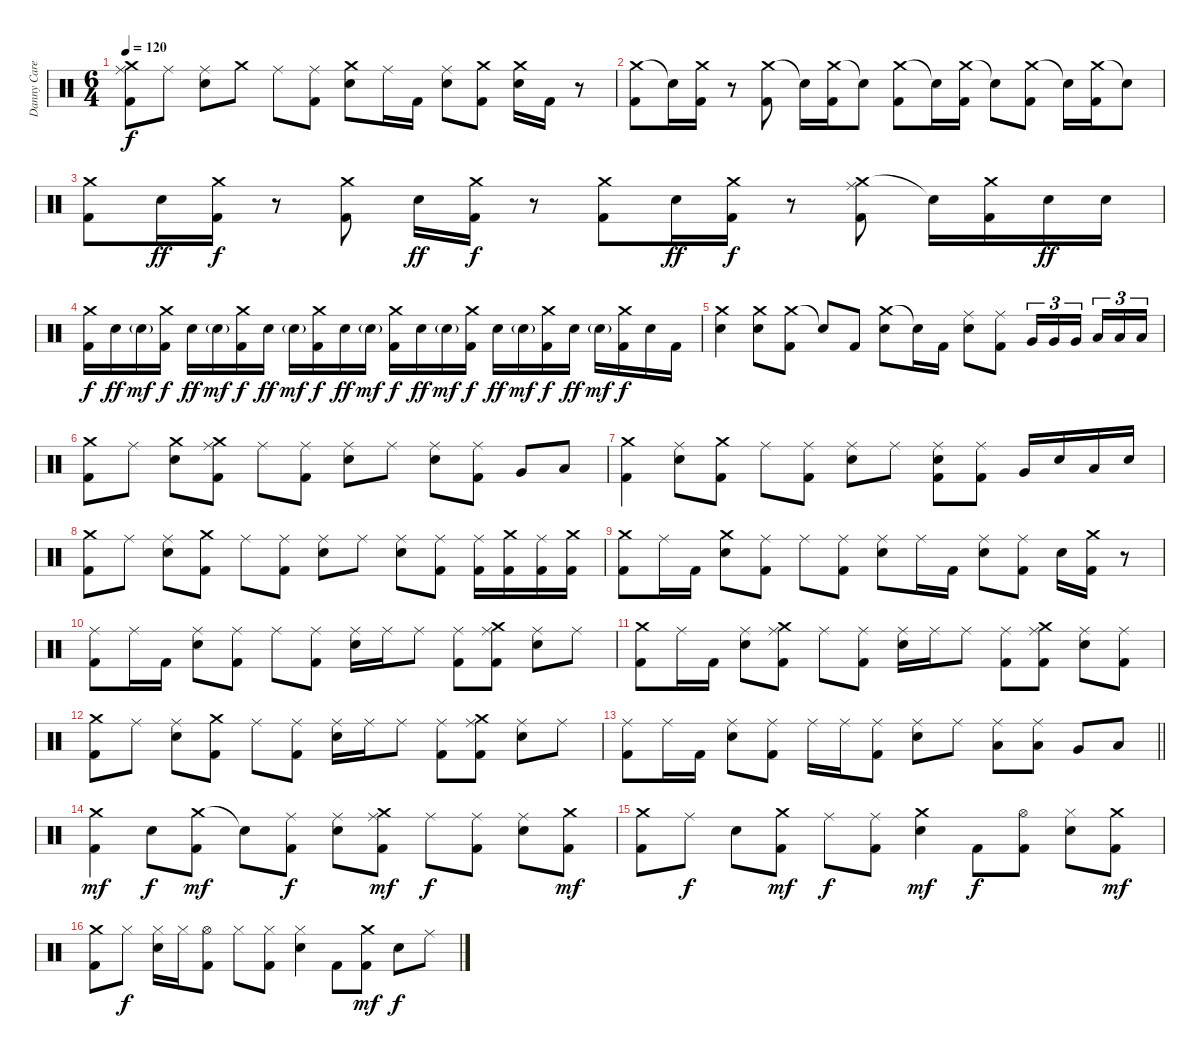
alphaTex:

\track ("Danny Carey" "Danny Care") {instrument percussion}
\staff {score}
\articulation defaults
\ts (6 4)
\tempo 120
\clef neutral
\ks c
("Crash medium (hit)" "Ride (middle)" "Kick (hit) 2").8{dy f} "Ride (middle)".8 ("Ride (middle)" "Snare (hit) 2").8 "Crash medium (hit)".8 "Ride (middle)".8 ("Ride (middle)" "Kick (hit) 2").8 ("Crash medium (hit)" "Snare (hit) 2").8 "Ride (middle)".16 "Kick (hit) 2".16 ("Ride (middle)" "Snare (hit) 2").8 ("Crash medium (hit)" "Kick (hit) 2").8 ("Crash medium (hit)" "Snare (hit) 2").16 "Kick (hit) 2".16 r.8 |
("Crash medium (hit)" "Kick (hit) 2").8 "Snare (hit)"{t}.16 ("Crash medium (hit)" "Kick (hit) 2").16 r.8 ("Crash medium (hit)" "Kick (hit) 2").8 "Snare (hit)"{t}.16 ("Crash medium (hit)" "Kick (hit) 2").16 "Snare (hit)"{t}.8 ("Crash medium (hit)" "Kick (hit) 2").8 "Snare (hit)"{t}.16 ("Crash medium (hit)" "Kick (hit) 2").16 "Snare (hit)"{t}.8 ("Crash medium (hit)" "Kick (hit) 2").8 "Snare (hit)"{t}.16 ("Crash medium (hit)" "Kick (hit) 2").16 "Snare (hit)"{t}.8 |
("Crash medium (hit)" "Kick (hit) 2").8 "Snare (hit) 2".16{dy ff} ("Crash medium (hit)" "Kick (hit) 2").16{dy f} r.8 ("Crash medium (hit)" "Kick (hit) 2").8 "Snare (hit) 2".16{dy ff} ("Crash medium (hit)" "Kick (hit) 2").16{dy f} r.8 ("Crash medium (hit)" "Kick (hit) 2").8 "Snare (hit) 2".16{dy ff} ("Crash medium (hit)" "Kick (hit) 2").16{dy f} r.8 ("Crash medium (hit)" "Ride (middle)" "Kick (hit) 2").8 "Snare (hit)"{t}.16 ("Crash medium (hit)" "Kick (hit) 2").16 "Snare (hit) 2".16{dy ff} "Snare (hit) 2".16 |
("Crash medium (hit)" "Kick (hit) 2").16{dy f} "Snare (hit) 2".16{dy ff} "Snare (hit) 2"{g}.16{dy mf} ("Crash medium (hit)" "Kick (hit) 2").16{dy f} "Snare (hit) 2".16{dy ff} "Snare (hit) 2"{g}.16{dy mf} ("Crash medium (hit)" "Kick (hit) 2").16{dy f} "Snare (hit) 2".16{dy ff} "Snare (hit) 2"{g}.16{dy mf} ("Crash medium (hit)" "Kick (hit) 2").16{dy f} "Snare (hit) 2".16{dy ff} "Snare (hit) 2"{g}.16{dy mf} ("Crash medium (hit)" "Kick (hit) 2").16{dy f} "Snare (hit) 2".16{dy ff} "Snare (hit) 2"{g}.16{dy mf} ("Crash medium (hit)" "Kick (hit) 2").16{dy f} "Snare (hit) 2".16{dy ff} "Snare (hit) 2"{g}.16{dy mf} ("Crash medium (hit)" "Kick (hit) 2").16{dy f} "Snare (hit) 2".16{dy ff} "Snare (hit) 2"{g}.16{dy mf} ("Crash medium (hit)" "Kick (hit) 2").16{dy f} "Snare (hit) 2".16 "Kick (hit) 2".16 |
("Crash medium (hit)" "Snare (hit) 2").4 ("Crash medium (hit)" "Snare (hit) 2").8 ("Crash medium (hit)" "Kick (hit) 2").8 "Snare (hit)"{t}.8 "Kick (hit) 2".8 ("Crash medium (hit)" "Snare (hit) 2").8 "Snare (hit)"{t}.16 "Kick (hit) 2".16 ("Ride (middle)" "Snare (hit) 2").8 ("Ride (middle)" "Kick (hit) 2").8 "Very Low Tom (hit)".16{tu (3 2)} "Very Low Tom (hit)".16{tu (3 2)} "Very Low Tom (hit)".16{tu (3 2) beam splitsecondary} "Low Floor Tom (hit)".16{tu (3 2)} "Low Floor Tom (hit)".16{tu (3 2)} "Low Floor Tom (hit)".16{tu (3 2)} |
("Crash medium (hit)" "Kick (hit) 2").8 "Ride (middle)".8 ("Crash medium (hit)" "Snare (hit) 2").8 ("Crash medium (hit)" "Ride (middle)" "Kick (hit) 2").8 "Ride (middle)".8 ("Ride (middle)" "Kick (hit) 2").8 ("Ride (middle)" "Snare (hit) 2").8 "Ride (middle)".8 ("Ride (middle)" "Snare (hit) 2").8 ("Ride (middle)" "Kick (hit) 2").8 "Very Low Tom (hit)".8 "Low Floor Tom (hit)".8 |
("Crash medium (hit)" "Kick (hit) 2").4 ("Ride (middle)" "Snare (hit) 2").8 ("Crash medium (hit)" "Kick (hit) 2").8 "Ride (middle)".8 ("Ride (middle)" "Kick (hit) 2").8 ("Ride (middle)" "Snare (hit) 2").8 "Ride (middle)".8 ("Ride (middle)" "Snare (hit) 2" "Kick (hit) 2").8 ("Ride (middle)" "Kick (hit) 2").8 "Very Low Tom (hit)".16 "Snare (hit) 2".16 "Low Floor Tom (hit)".16 "Snare (hit) 2".16 |
("Crash medium (hit)" "Kick (hit) 2").8 "Ride (middle)".8 ("Ride (middle)" "Snare (hit) 2").8 ("Crash medium (hit)" "Kick (hit) 2").8 "Ride (middle)".8 ("Ride (middle)" "Kick (hit) 2").8 ("Ride (middle)" "Snare (hit) 2").8 "Ride (middle)".8 ("Ride (middle)" "Snare (hit) 2").8 ("Ride (middle)" "Kick (hit) 2").8 ("Ride (middle)" "Kick (hit) 2").16 ("Crash medium (hit)" "Kick (hit) 2").16 ("Ride (middle)" "Kick (hit) 2").16 ("Crash medium (hit)" "Kick (hit) 2").16 |
("Crash medium (hit)" "Kick (hit) 2").8 "Ride (middle)".16 "Kick (hit) 2".16 ("Crash medium (hit)" "Snare (hit) 2").8 ("Ride (middle)" "Kick (hit) 2").8 "Ride (middle)".8 ("Ride (middle)" "Kick (hit) 2").8 ("Ride (middle)" "Snare (hit) 2").8 "Ride (middle)".16 "Kick (hit) 2".16 ("Ride (middle)" "Snare (hit) 2").8 ("Ride (middle)" "Kick (hit) 2").8 "Snare (hit) 2".16 ("Crash medium (hit)" "Kick (hit) 2").16 r.8 |
("Ride (middle)" "Kick (hit) 2").8 "Ride (middle)".16 "Kick (hit) 2".16 ("Ride (middle)" "Snare (hit) 2").8 ("Ride (middle)" "Kick (hit) 2").8 "Ride (middle)".8 ("Ride (middle)" "Kick (hit) 2").8 ("Ride (middle)" "Snare (hit) 2").16 "Ride (middle)".16 "Ride (middle)".8 ("Ride (middle)" "Kick (hit) 2").8 ("Crash medium (hit)" "Ride (middle)" "Kick (hit) 2").8 ("Ride (middle)" "Snare (hit) 2").8 "Ride (middle)".8 |
("Crash medium (hit)" "Kick (hit) 2").8 "Ride (middle)".16 "Kick (hit) 2".16 ("Ride (middle)" "Snare (hit) 2").8 ("Crash medium (hit)" "Ride (middle)" "Kick (hit) 2").8 "Ride (middle)".8 ("Ride (middle)" "Kick (hit) 2").8 ("Ride (middle)" "Snare (hit) 2").16 "Ride (middle)".16 "Ride (middle)".8 ("Ride (middle)" "Kick (hit) 2").8 ("Crash medium (hit)" "Ride (middle)" "Kick (hit) 2").8 ("Ride (middle)" "Snare (hit) 2").8 ("Ride (middle)" "Kick (hit) 2").8 |
("Crash medium (hit)" "Kick (hit) 2").8 "Ride (middle)".8 ("Ride (middle)" "Snare (hit) 2").8 ("Crash medium (hit)" "Kick (hit) 2").8 "Ride (middle)".8 ("Ride (middle)" "Kick (hit) 2").8 ("Ride (middle)" "Snare (hit) 2").16 "Ride (middle)".16 "Ride (middle)".8 ("Ride (middle)" "Kick (hit) 2").8 ("Crash medium (hit)" "Ride (middle)" "Kick (hit) 2").8 ("Ride (middle)" "Snare (hit) 2").8 "Ride (middle)".8 |
\barLineRight lightlight
("Ride (middle)" "Kick (hit) 2").8 "Ride (middle)".16 "Kick (hit) 2".16 ("Ride (middle)" "Snare (hit) 2").8 ("Ride (middle)" "Kick (hit) 2").8 "Ride (middle)".16 "Ride (middle)".16 ("Ride (middle)" "Kick (hit) 2").8 ("Ride (middle)" "Snare (hit) 2").8 "Ride (middle)".8 ("Ride (middle)" "Low Tom (hit)").8 ("Ride (middle)" "Low Tom (hit)").8 "Very Low Tom (hit)".8 "Low Floor Tom (hit)".8 |
\section ("" "")
("Crash medium (hit)" "Kick (hit) 2").4{dy mf} "Snare (hit) 2".8{dy f} ("Crash medium (hit)" "Kick (hit) 2").8{dy mf} "Snare (hit)"{t}.8 ("Ride (middle)" "Kick (hit) 2").8{dy f} ("Ride (middle)" "Snare (hit) 2").8 ("Crash medium (hit)" "Ride (middle)" "Kick (hit) 2").8{dy mf} "Ride (middle)".8{dy f} ("Ride (middle)" "Kick (hit) 2").8 ("Ride (middle)" "Snare (hit) 2").8 ("Crash medium (hit)" "Kick (hit) 2").8{dy mf} |
("Crash medium (hit)" "Kick (hit) 2").8 "Ride (middle)".8{dy f} "Snare (hit) 2".8 ("Crash medium (hit)" "Kick (hit) 2").8{dy mf} "Ride (middle)".8{dy f} ("Ride (middle)" "Kick (hit) 2").8 ("Crash medium (hit)" "Snare (hit) 2").4{dy mf} "Kick (hit) 2".8{dy f} ("Hi-Hat (open)" "Kick (hit) 2").8 ("Hi-Hat (closed)" "Snare (hit) 2").8 ("Crash medium (hit)" "Kick (hit) 2").8{dy mf} |
("Crash medium (hit)" "Kick (hit) 2").8 "Hi-Hat (closed)".8{dy f} ("Hi-Hat (closed)" "Snare (hit) 2").16 "Hi-Hat (closed)".16 ("Hi-Hat (open)" "Kick (hit) 2").8 "Hi-Hat (closed)".8 ("Hi-Hat (closed)" "Kick (hit) 2").8 ("Hi-Hat (closed)" "Snare (hit) 2").4 "Kick (hit) 2".8 ("Crash medium (hit)" "Kick (hit) 2").8{dy mf} "Snare (hit) 2".8{dy f} "Ride (middle)".8
